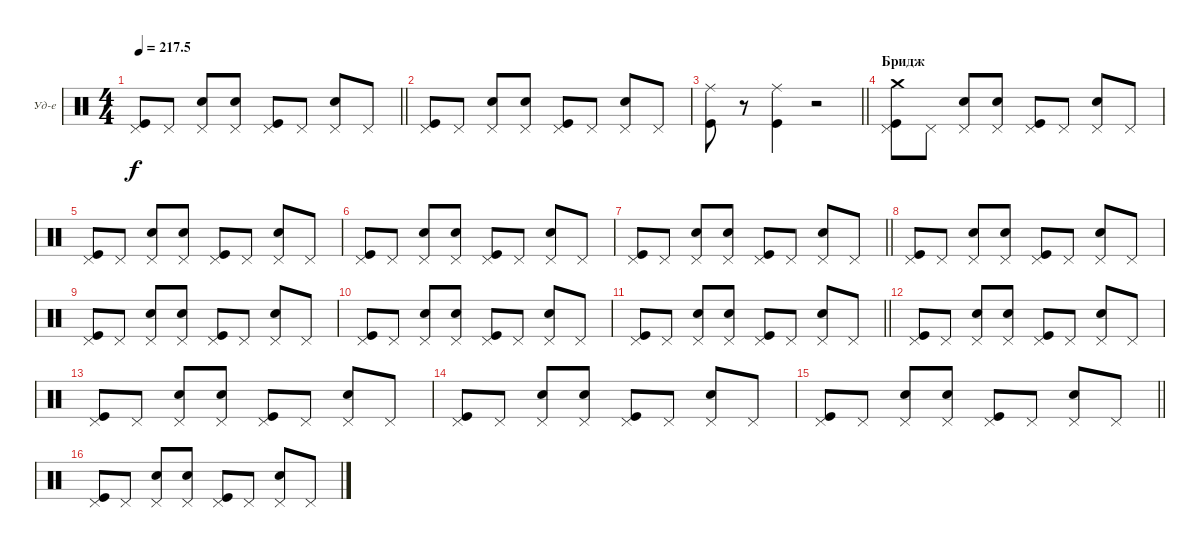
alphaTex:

\bracketExtendMode groupsimilarinstruments
\firstSystemTrackNameOrientation horizontal
\otherSystemsTrackNameOrientation horizontal
\track ("Ударные" "Уд-е") {instrument percussion}
\staff {score}
\articulation defaults
\ts (4 4)
\tempo
217.5
\accidentals auto
\clef neutral
\ottava regular
\simile none
\barLineRight lightlight
\ks c
("Pedal Hi-Hat (hit)" "Kick (hit)").8{dy f} "Pedal Hi-Hat (hit)".8 ("Pedal Hi-Hat (hit)" "Snare (hit) 2").8 ("Pedal Hi-Hat (hit)" "Snare (hit) 2").8 ("Pedal Hi-Hat (hit)" "Kick (hit)").8 "Pedal Hi-Hat (hit)".8 ("Pedal Hi-Hat (hit)" "Snare (hit) 2").8 "Pedal Hi-Hat (hit)".8 |
("Pedal Hi-Hat (hit)" "Kick (hit)").8 "Pedal Hi-Hat (hit)".8 ("Pedal Hi-Hat (hit)" "Snare (hit) 2").8 ("Pedal Hi-Hat (hit)" "Snare (hit) 2").8 ("Pedal Hi-Hat (hit)" "Kick (hit)").8 "Pedal Hi-Hat (hit)".8 ("Pedal Hi-Hat (hit)" "Snare (hit) 2").8 "Pedal Hi-Hat (hit)".8 |
\barLineRight lightlight
("Kick (hit)" "Ride (middle)").8 r.8 ("Kick (hit)" "Ride (middle)").4 r.2 |
\section ("" "Бридж")
("Pedal Hi-Hat (hit)" "Kick (hit)" "Crash medium (hit)").8 "Pedal Hi-Hat (hit)".8 ("Pedal Hi-Hat (hit)" "Snare (hit) 2").8 ("Pedal Hi-Hat (hit)" "Snare (hit) 2").8 ("Pedal Hi-Hat (hit)" "Kick (hit)").8 "Pedal Hi-Hat (hit)".8 ("Pedal Hi-Hat (hit)" "Snare (hit) 2").8 "Pedal Hi-Hat (hit)".8 |
("Pedal Hi-Hat (hit)" "Kick (hit)").8 "Pedal Hi-Hat (hit)".8 ("Pedal Hi-Hat (hit)" "Snare (hit) 2").8 ("Pedal Hi-Hat (hit)" "Snare (hit) 2").8 ("Pedal Hi-Hat (hit)" "Kick (hit)").8 "Pedal Hi-Hat (hit)".8 ("Pedal Hi-Hat (hit)" "Snare (hit) 2").8 "Pedal Hi-Hat (hit)".8 |
("Pedal Hi-Hat (hit)" "Kick (hit)").8 "Pedal Hi-Hat (hit)".8 ("Pedal Hi-Hat (hit)" "Snare (hit) 2").8 ("Pedal Hi-Hat (hit)" "Snare (hit) 2").8 ("Pedal Hi-Hat (hit)" "Kick (hit)").8 "Pedal Hi-Hat (hit)".8 ("Pedal Hi-Hat (hit)" "Snare (hit) 2").8 "Pedal Hi-Hat (hit)".8 |
\barLineRight lightlight
("Pedal Hi-Hat (hit)" "Kick (hit)").8 "Pedal Hi-Hat (hit)".8 ("Pedal Hi-Hat (hit)" "Snare (hit) 2").8 ("Pedal Hi-Hat (hit)" "Snare (hit) 2").8 ("Pedal Hi-Hat (hit)" "Kick (hit)").8 "Pedal Hi-Hat (hit)".8 ("Pedal Hi-Hat (hit)" "Snare (hit) 2").8 "Pedal Hi-Hat (hit)".8 |
("Pedal Hi-Hat (hit)" "Kick (hit)").8 "Pedal Hi-Hat (hit)".8 ("Pedal Hi-Hat (hit)" "Snare (hit) 2").8 ("Pedal Hi-Hat (hit)" "Snare (hit) 2").8 ("Pedal Hi-Hat (hit)" "Kick (hit)").8 "Pedal Hi-Hat (hit)".8 ("Pedal Hi-Hat (hit)" "Snare (hit) 2").8 "Pedal Hi-Hat (hit)".8 |
("Pedal Hi-Hat (hit)" "Kick (hit)").8 "Pedal Hi-Hat (hit)".8 ("Pedal Hi-Hat (hit)" "Snare (hit) 2").8 ("Pedal Hi-Hat (hit)" "Snare (hit) 2").8 ("Pedal Hi-Hat (hit)" "Kick (hit)").8 "Pedal Hi-Hat (hit)".8 ("Pedal Hi-Hat (hit)" "Snare (hit) 2").8 "Pedal Hi-Hat (hit)".8 |
("Pedal Hi-Hat (hit)" "Kick (hit)").8 "Pedal Hi-Hat (hit)".8 ("Pedal Hi-Hat (hit)" "Snare (hit) 2").8 ("Pedal Hi-Hat (hit)" "Snare (hit) 2").8 ("Pedal Hi-Hat (hit)" "Kick (hit)").8 "Pedal Hi-Hat (hit)".8 ("Pedal Hi-Hat (hit)" "Snare (hit) 2").8 "Pedal Hi-Hat (hit)".8 |
\barLineRight lightlight
("Pedal Hi-Hat (hit)" "Kick (hit)").8 "Pedal Hi-Hat (hit)".8 ("Pedal Hi-Hat (hit)" "Snare (hit) 2").8 ("Pedal Hi-Hat (hit)" "Snare (hit) 2").8 ("Pedal Hi-Hat (hit)" "Kick (hit)").8 "Pedal Hi-Hat (hit)".8 ("Pedal Hi-Hat (hit)" "Snare (hit) 2").8 "Pedal Hi-Hat (hit)".8 |
("Pedal Hi-Hat (hit)" "Kick (hit)").8 "Pedal Hi-Hat (hit)".8 ("Pedal Hi-Hat (hit)" "Snare (hit) 2").8 ("Pedal Hi-Hat (hit)" "Snare (hit) 2").8 ("Pedal Hi-Hat (hit)" "Kick (hit)").8 "Pedal Hi-Hat (hit)".8 ("Pedal Hi-Hat (hit)" "Snare (hit) 2").8 "Pedal Hi-Hat (hit)".8 |
("Pedal Hi-Hat (hit)" "Kick (hit)").8 "Pedal Hi-Hat (hit)".8 ("Pedal Hi-Hat (hit)" "Snare (hit) 2").8 ("Pedal Hi-Hat (hit)" "Snare (hit) 2").8 ("Pedal Hi-Hat (hit)" "Kick (hit)").8 "Pedal Hi-Hat (hit)".8 ("Pedal Hi-Hat (hit)" "Snare (hit) 2").8 "Pedal Hi-Hat (hit)".8 |
("Pedal Hi-Hat (hit)" "Kick (hit)").8 "Pedal Hi-Hat (hit)".8 ("Pedal Hi-Hat (hit)" "Snare (hit) 2").8 ("Pedal Hi-Hat (hit)" "Snare (hit) 2").8 ("Pedal Hi-Hat (hit)" "Kick (hit)").8 "Pedal Hi-Hat (hit)".8 ("Pedal Hi-Hat (hit)" "Snare (hit) 2").8 "Pedal Hi-Hat (hit)".8 |
\barLineRight lightlight
("Pedal Hi-Hat (hit)" "Kick (hit)").8 "Pedal Hi-Hat (hit)".8 ("Pedal Hi-Hat (hit)" "Snare (hit) 2").8 ("Pedal Hi-Hat (hit)" "Snare (hit) 2").8 ("Pedal Hi-Hat (hit)" "Kick (hit)").8 "Pedal Hi-Hat (hit)".8 ("Pedal Hi-Hat (hit)" "Snare (hit) 2").8 "Pedal Hi-Hat (hit)".8 |
("Pedal Hi-Hat (hit)" "Kick (hit)").8 "Pedal Hi-Hat (hit)".8 ("Pedal Hi-Hat (hit)" "Snare (hit) 2").8 ("Pedal Hi-Hat (hit)" "Snare (hit) 2").8 ("Pedal Hi-Hat (hit)" "Kick (hit)").8 "Pedal Hi-Hat (hit)".8 ("Pedal Hi-Hat (hit)" "Snare (hit) 2").8 "Pedal Hi-Hat (hit)".8
